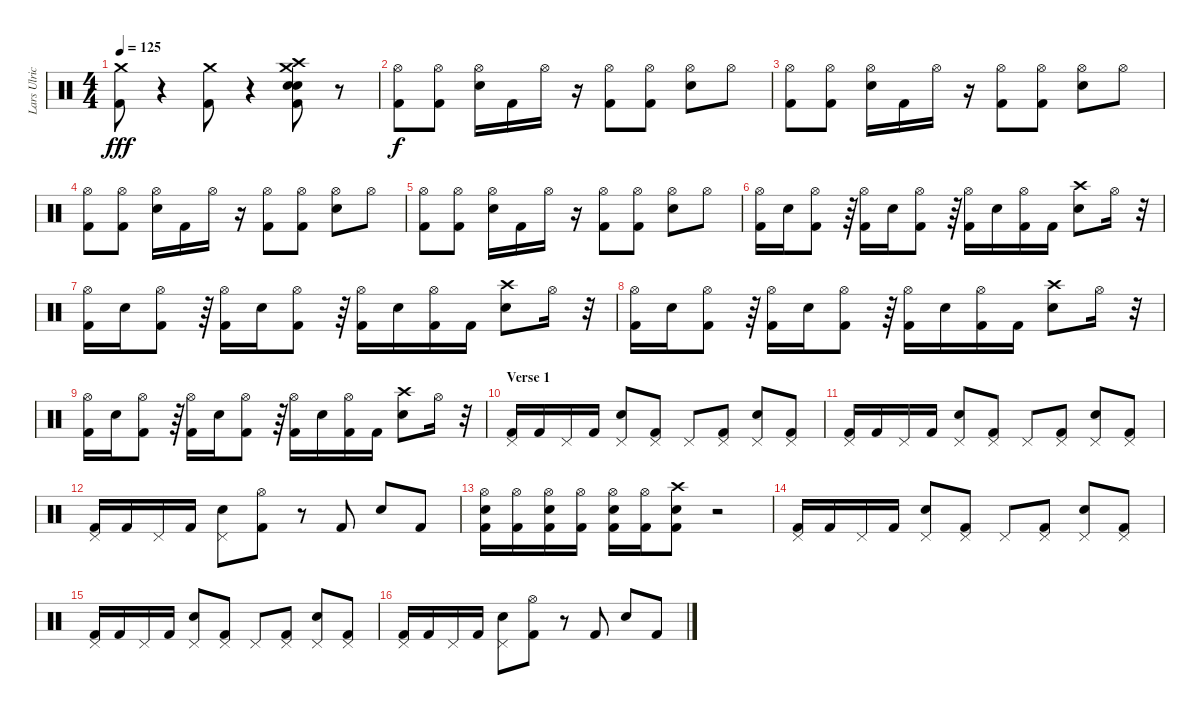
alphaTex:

\track ("Lars Ulrich" "Lars Ulric") {instrument percussion}
\staff {score}
\articulation defaults
\ts (4 4)
\tempo 125
\clef neutral
\ks c
("Crash medium (hit)" "Kick (hit) 2").8{dy fff} r.4 ("Crash medium (hit)" "Kick (hit) 2").8 r.4 ("Crash high (hit)" "Crash medium (hit)" "Electric Snare (hit)" "Snare (hit) 2" "Kick (hit) 2").8 r.8 |
("Hi-Hat (open)" "Kick (hit) 2").8{dy f} ("Hi-Hat (open)" "Kick (hit) 2").8 ("Hi-Hat (open)" "Electric Snare (hit)").16 "Kick (hit) 2".16 "Hi-Hat (open)".16 r.16 ("Hi-Hat (open)" "Kick (hit) 2").8 ("Hi-Hat (open)" "Kick (hit) 2").8 ("Hi-Hat (open)" "Electric Snare (hit)").8 "Hi-Hat (open)".8 |
("Hi-Hat (open)" "Kick (hit) 2").8 ("Hi-Hat (open)" "Kick (hit) 2").8 ("Hi-Hat (open)" "Electric Snare (hit)").16 "Kick (hit) 2".16 "Hi-Hat (open)".16 r.16 ("Hi-Hat (open)" "Kick (hit) 2").8 ("Hi-Hat (open)" "Kick (hit) 2").8 ("Hi-Hat (open)" "Electric Snare (hit)").8 "Hi-Hat (open)".8 |
("Hi-Hat (open)" "Kick (hit) 2").8 ("Hi-Hat (open)" "Kick (hit) 2").8 ("Hi-Hat (open)" "Electric Snare (hit)").16 "Kick (hit) 2".16 "Hi-Hat (open)".16 r.16 ("Hi-Hat (open)" "Kick (hit) 2").8 ("Hi-Hat (open)" "Kick (hit) 2").8 ("Hi-Hat (open)" "Electric Snare (hit)").8 "Hi-Hat (open)".8 |
("Hi-Hat (open)" "Kick (hit) 2").8 ("Hi-Hat (open)" "Kick (hit) 2").8 ("Hi-Hat (open)" "Electric Snare (hit)").16 "Kick (hit) 2".16 "Hi-Hat (open)".16 r.16 ("Hi-Hat (open)" "Kick (hit) 2").8 ("Hi-Hat (open)" "Kick (hit) 2").8 ("Hi-Hat (open)" "Electric Snare (hit)").8 "Hi-Hat (open)".8 |
("Hi-Hat (open)" "Kick (hit) 2").16 "Electric Snare (hit)".16 ("Hi-Hat (open)" "Kick (hit) 2").8 r.64 ("Hi-Hat (open)" "Kick (hit) 2").16 "Electric Snare (hit)".16 ("Hi-Hat (open)" "Kick (hit) 2").8 r.64 ("Hi-Hat (open)" "Kick (hit) 2").16 "Electric Snare (hit)".16 ("Hi-Hat (open)" "Kick (hit) 2").16 "Kick (hit) 2".16 ("Crash high (hit)" "Electric Snare (hit)").8 "Hi-Hat (open)".16 r.32 |
("Hi-Hat (open)" "Kick (hit) 2").16 "Electric Snare (hit)".16 ("Hi-Hat (open)" "Kick (hit) 2").8 r.64 ("Hi-Hat (open)" "Kick (hit) 2").16 "Electric Snare (hit)".16 ("Hi-Hat (open)" "Kick (hit) 2").8 r.64 ("Hi-Hat (open)" "Kick (hit) 2").16 "Electric Snare (hit)".16 ("Hi-Hat (open)" "Kick (hit) 2").16 "Kick (hit) 2".16 ("Crash high (hit)" "Electric Snare (hit)").8 "Hi-Hat (open)".16 r.32 |
("Hi-Hat (open)" "Kick (hit) 2").16 "Electric Snare (hit)".16 ("Hi-Hat (open)" "Kick (hit) 2").8 r.64 ("Hi-Hat (open)" "Kick (hit) 2").16 "Electric Snare (hit)".16 ("Hi-Hat (open)" "Kick (hit) 2").8 r.64 ("Hi-Hat (open)" "Kick (hit) 2").16 "Electric Snare (hit)".16 ("Hi-Hat (open)" "Kick (hit) 2").16 "Kick (hit) 2".16 ("Crash high (hit)" "Electric Snare (hit)").8 "Hi-Hat (open)".16 r.32 |
("Hi-Hat (open)" "Kick (hit) 2").16 "Electric Snare (hit)".16 ("Hi-Hat (open)" "Kick (hit) 2").8 r.64 ("Hi-Hat (open)" "Kick (hit) 2").16 "Electric Snare (hit)".16 ("Hi-Hat (open)" "Kick (hit) 2").8 r.64 ("Hi-Hat (open)" "Kick (hit) 2").16 "Electric Snare (hit)".16 ("Hi-Hat (open)" "Kick (hit) 2").16 "Kick (hit) 2".16 ("Crash high (hit)" "Electric Snare (hit)").8 "Hi-Hat (open)".16 r.32 |
\section ("" "Verse 1")
("Pedal Hi-Hat (hit)" "Kick (hit) 2").16 "Kick (hit) 2".16 "Pedal Hi-Hat (hit)".16 "Kick (hit) 2".16 ("Pedal Hi-Hat (hit)" "Electric Snare (hit)").8 ("Pedal Hi-Hat (hit)" "Kick (hit) 2").8 "Pedal Hi-Hat (hit)".8 ("Pedal Hi-Hat (hit)" "Kick (hit) 2").8 ("Pedal Hi-Hat (hit)" "Electric Snare (hit)").8 ("Pedal Hi-Hat (hit)" "Kick (hit) 2").8 |
("Pedal Hi-Hat (hit)" "Kick (hit) 2").16 "Kick (hit) 2".16 "Pedal Hi-Hat (hit)".16 "Kick (hit) 2".16 ("Pedal Hi-Hat (hit)" "Electric Snare (hit)").8 ("Pedal Hi-Hat (hit)" "Kick (hit) 2").8 "Pedal Hi-Hat (hit)".8 ("Pedal Hi-Hat (hit)" "Kick (hit) 2").8 ("Pedal Hi-Hat (hit)" "Electric Snare (hit)").8 ("Pedal Hi-Hat (hit)" "Kick (hit) 2").8 |
("Pedal Hi-Hat (hit)" "Kick (hit) 2").16 "Kick (hit) 2".16 "Pedal Hi-Hat (hit)".16 "Kick (hit) 2".16 ("Pedal Hi-Hat (hit)" "Electric Snare (hit)").8 ("Hi-Hat (open)" "Kick (hit) 2").8 r.8 "Kick (hit) 2".8 "Electric Snare (hit)".8 "Kick (hit) 2".8 |
("Hi-Hat (open)" "Electric Snare (hit)" "Kick (hit) 2").16 ("Hi-Hat (open)" "Kick (hit) 2").16 ("Hi-Hat (open)" "Electric Snare (hit)" "Kick (hit) 2").16 ("Hi-Hat (open)" "Kick (hit) 2").16 ("Hi-Hat (open)" "Electric Snare (hit)" "Kick (hit) 2").16 ("Hi-Hat (open)" "Kick (hit) 2").16 ("Crash high (hit)" "Electric Snare (hit)" "Kick (hit) 2").8 r.2 |
("Pedal Hi-Hat (hit)" "Kick (hit) 2").16 "Kick (hit) 2".16 "Pedal Hi-Hat (hit)".16 "Kick (hit) 2".16 ("Pedal Hi-Hat (hit)" "Electric Snare (hit)").8 ("Pedal Hi-Hat (hit)" "Kick (hit) 2").8 "Pedal Hi-Hat (hit)".8 ("Pedal Hi-Hat (hit)" "Kick (hit) 2").8 ("Pedal Hi-Hat (hit)" "Electric Snare (hit)").8 ("Pedal Hi-Hat (hit)" "Kick (hit) 2").8 |
("Pedal Hi-Hat (hit)" "Kick (hit) 2").16 "Kick (hit) 2".16 "Pedal Hi-Hat (hit)".16 "Kick (hit) 2".16 ("Pedal Hi-Hat (hit)" "Electric Snare (hit)").8 ("Pedal Hi-Hat (hit)" "Kick (hit) 2").8 "Pedal Hi-Hat (hit)".8 ("Pedal Hi-Hat (hit)" "Kick (hit) 2").8 ("Pedal Hi-Hat (hit)" "Electric Snare (hit)").8 ("Pedal Hi-Hat (hit)" "Kick (hit) 2").8 |
("Pedal Hi-Hat (hit)" "Kick (hit) 2").16 "Kick (hit) 2".16 "Pedal Hi-Hat (hit)".16 "Kick (hit) 2".16 ("Pedal Hi-Hat (hit)" "Electric Snare (hit)").8 ("Hi-Hat (open)" "Kick (hit) 2").8 r.8 "Kick (hit) 2".8 "Electric Snare (hit)".8 "Kick (hit) 2".8
